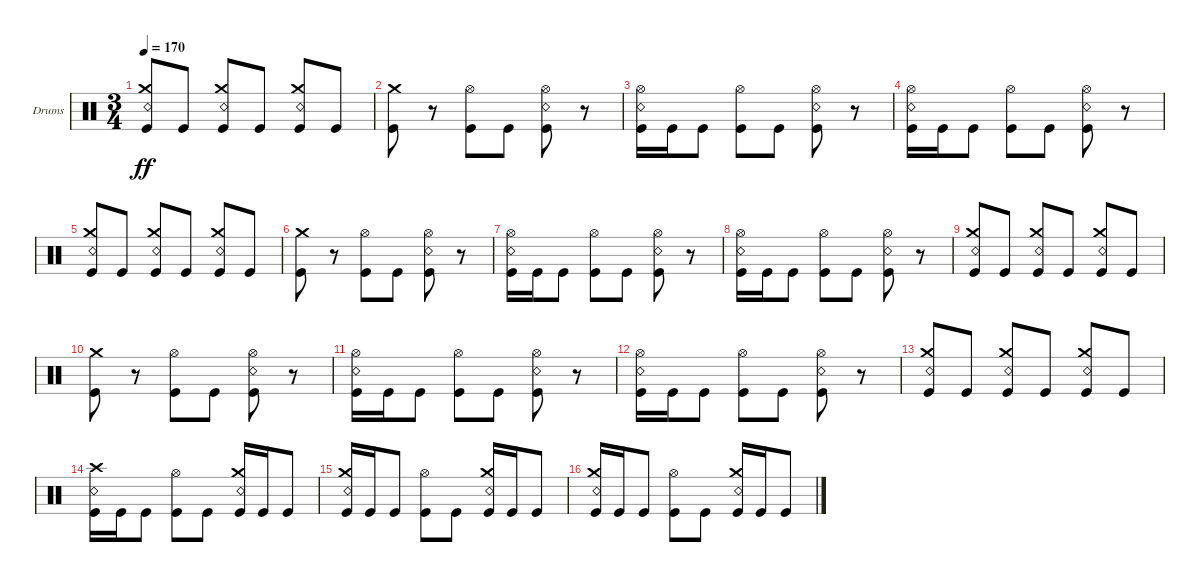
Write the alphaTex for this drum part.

\bracketExtendMode groupsimilarinstruments
\firstSystemTrackNameOrientation horizontal
\otherSystemsTrackNameOrientation horizontal
\track ("Kaleb - Drums" "Drums") {instrument percussion}
\staff {score}
\articulation defaults
\ts (3 4)
\tempo 170
\clef neutral
\ks c
("Kick (hit)" "Crash medium (hit)" "Snare (rim shot)").8{dy ff} "Kick (hit)".8 ("Kick (hit)" "Crash medium (hit)" "Snare (rim shot)").8 "Kick (hit)".8 ("Kick (hit)" "Crash medium (hit)" "Snare (rim shot)").8 "Kick (hit)".8 |
("Kick (hit)" "Crash medium (hit)").8 r.8 ("Kick (hit)" "Hi-Hat (open)").8 "Kick (hit)".8 ("Kick (hit)" "Hi-Hat (open)" "Snare (rim shot)").8 r.8 |
("Kick (hit)" "Hi-Hat (open)" "Snare (rim shot)").16 "Kick (hit)".16 "Kick (hit)".8 ("Kick (hit)" "Hi-Hat (open)").8 "Kick (hit)".8 ("Kick (hit)" "Hi-Hat (open)" "Snare (rim shot)").8 r.8 |
("Kick (hit)" "Hi-Hat (open)" "Snare (rim shot)").16 "Kick (hit)".16 "Kick (hit)".8 ("Kick (hit)" "Hi-Hat (open)").8 "Kick (hit)".8 ("Kick (hit)" "Hi-Hat (open)" "Snare (rim shot)").8 r.8 |
("Kick (hit)" "Crash medium (hit)" "Snare (rim shot)").8 "Kick (hit)".8 ("Kick (hit)" "Crash medium (hit)" "Snare (rim shot)").8 "Kick (hit)".8 ("Kick (hit)" "Crash medium (hit)" "Snare (rim shot)").8 "Kick (hit)".8 |
("Kick (hit)" "Crash medium (hit)").8 r.8 ("Kick (hit)" "Hi-Hat (open)").8 "Kick (hit)".8 ("Kick (hit)" "Hi-Hat (open)" "Snare (rim shot)").8 r.8 |
("Kick (hit)" "Hi-Hat (open)" "Snare (rim shot)").16 "Kick (hit)".16 "Kick (hit)".8 ("Kick (hit)" "Hi-Hat (open)").8 "Kick (hit)".8 ("Kick (hit)" "Hi-Hat (open)" "Snare (rim shot)").8 r.8 |
("Kick (hit)" "Hi-Hat (open)" "Snare (rim shot)").16 "Kick (hit)".16 "Kick (hit)".8 ("Kick (hit)" "Hi-Hat (open)").8 "Kick (hit)".8 ("Kick (hit)" "Hi-Hat (open)" "Snare (rim shot)").8 r.8 |
("Kick (hit)" "Crash medium (hit)" "Snare (rim shot)").8 "Kick (hit)".8 ("Kick (hit)" "Crash medium (hit)" "Snare (rim shot)").8 "Kick (hit)".8 ("Kick (hit)" "Crash medium (hit)" "Snare (rim shot)").8 "Kick (hit)".8 |
("Kick (hit)" "Crash medium (hit)").8 r.8 ("Kick (hit)" "Hi-Hat (open)").8 "Kick (hit)".8 ("Kick (hit)" "Hi-Hat (open)" "Snare (rim shot)").8 r.8 |
("Kick (hit)" "Hi-Hat (open)" "Snare (rim shot)").16 "Kick (hit)".16 "Kick (hit)".8 ("Kick (hit)" "Hi-Hat (open)").8 "Kick (hit)".8 ("Kick (hit)" "Hi-Hat (open)" "Snare (rim shot)").8 r.8 |
("Kick (hit)" "Hi-Hat (open)" "Snare (rim shot)").16 "Kick (hit)".16 "Kick (hit)".8 ("Kick (hit)" "Hi-Hat (open)").8 "Kick (hit)".8 ("Kick (hit)" "Hi-Hat (open)" "Snare (rim shot)").8 r.8 |
("Kick (hit)" "Crash medium (hit)" "Snare (rim shot)").8 "Kick (hit)".8 ("Kick (hit)" "Crash medium (hit)" "Snare (rim shot)").8 "Kick (hit)".8 ("Kick (hit)" "Crash medium (hit)" "Snare (rim shot)").8 "Kick (hit)".8 |
("Kick (hit)" "Snare (rim shot)" "Crash high (hit)").16 "Kick (hit)".16 "Kick (hit)".8 ("Kick (hit)" "Hi-Hat (open)").8 "Kick (hit)".8 ("Kick (hit)" "Snare (rim shot)" "Crash medium (hit)").16 "Kick (hit)".16 "Kick (hit)".8 |
("Kick (hit)" "Snare (rim shot)" "Crash medium (hit)").16 "Kick (hit)".16 "Kick (hit)".8 ("Kick (hit)" "Hi-Hat (open)").8 "Kick (hit)".8 ("Kick (hit)" "Snare (rim shot)" "Crash medium (hit)").16 "Kick (hit)".16 "Kick (hit)".8 |
("Kick (hit)" "Snare (rim shot)" "Crash medium (hit)").16 "Kick (hit)".16 "Kick (hit)".8 ("Kick (hit)" "Hi-Hat (open)").8 "Kick (hit)".8 ("Kick (hit)" "Snare (rim shot)" "Crash medium (hit)").16 "Kick (hit)".16 "Kick (hit)".8
